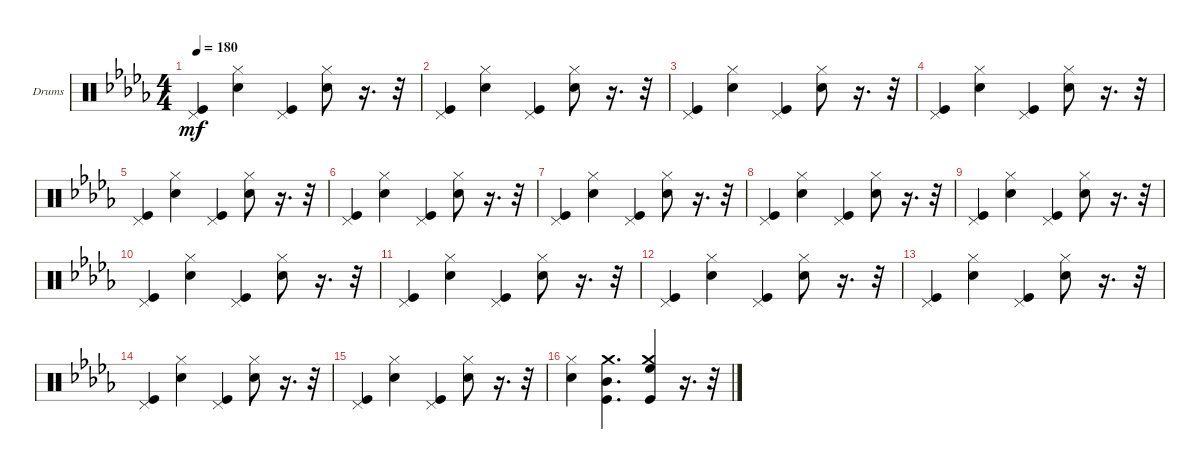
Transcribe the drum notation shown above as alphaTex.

\bracketExtendMode groupsimilarinstruments
\firstSystemTrackNameOrientation horizontal
\otherSystemsTrackNameOrientation horizontal
\track ("Drums" "Drums") {instrument percussion}
\staff {score}
\articulation defaults
\ts (4 4)
\tempo 180
\clef neutral
\ks bbminor
("Kick (hit)" "Pedal Hi-Hat (hit)").4{dy mf} ("Snare (hit) 2" "Hi-Hat (closed)").4 ("Kick (hit)" "Pedal Hi-Hat (hit)").4 ("Snare (hit) 2" "Hi-Hat (closed)").8 r.16{d} r.32 |
("Kick (hit)" "Pedal Hi-Hat (hit)").4 ("Snare (hit) 2" "Hi-Hat (closed)").4 ("Kick (hit)" "Pedal Hi-Hat (hit)").4 ("Snare (hit) 2" "Hi-Hat (closed)").8 r.16{d} r.32 |
("Kick (hit)" "Pedal Hi-Hat (hit)").4 ("Snare (hit) 2" "Hi-Hat (closed)").4 ("Kick (hit)" "Pedal Hi-Hat (hit)").4 ("Snare (hit) 2" "Hi-Hat (closed)").8 r.16{d} r.32 |
("Kick (hit)" "Pedal Hi-Hat (hit)").4 ("Snare (hit) 2" "Hi-Hat (closed)").4 ("Kick (hit)" "Pedal Hi-Hat (hit)").4 ("Snare (hit) 2" "Hi-Hat (closed)").8 r.16{d} r.32 |
("Kick (hit)" "Pedal Hi-Hat (hit)").4 ("Snare (hit) 2" "Hi-Hat (closed)").4 ("Kick (hit)" "Pedal Hi-Hat (hit)").4 ("Snare (hit) 2" "Hi-Hat (closed)").8 r.16{d} r.32 |
("Kick (hit)" "Pedal Hi-Hat (hit)").4 ("Snare (hit) 2" "Hi-Hat (closed)").4 ("Kick (hit)" "Pedal Hi-Hat (hit)").4 ("Snare (hit) 2" "Hi-Hat (closed)").8 r.16{d} r.32 |
("Kick (hit)" "Pedal Hi-Hat (hit)").4 ("Snare (hit) 2" "Hi-Hat (closed)").4 ("Kick (hit)" "Pedal Hi-Hat (hit)").4 ("Snare (hit) 2" "Hi-Hat (closed)").8 r.16{d} r.32 |
("Kick (hit)" "Pedal Hi-Hat (hit)").4 ("Snare (hit) 2" "Hi-Hat (closed)").4 ("Kick (hit)" "Pedal Hi-Hat (hit)").4 ("Snare (hit) 2" "Hi-Hat (closed)").8 r.16{d} r.32 |
("Kick (hit)" "Pedal Hi-Hat (hit)").4 ("Snare (hit) 2" "Hi-Hat (closed)").4 ("Kick (hit)" "Pedal Hi-Hat (hit)").4 ("Snare (hit) 2" "Hi-Hat (closed)").8 r.16{d} r.32 |
("Kick (hit)" "Pedal Hi-Hat (hit)").4 ("Snare (hit) 2" "Hi-Hat (closed)").4 ("Kick (hit)" "Pedal Hi-Hat (hit)").4 ("Snare (hit) 2" "Hi-Hat (closed)").8 r.16{d} r.32 |
("Kick (hit)" "Pedal Hi-Hat (hit)").4 ("Snare (hit) 2" "Hi-Hat (closed)").4 ("Kick (hit)" "Pedal Hi-Hat (hit)").4 ("Snare (hit) 2" "Hi-Hat (closed)").8 r.16{d} r.32 |
("Kick (hit)" "Pedal Hi-Hat (hit)").4 ("Snare (hit) 2" "Hi-Hat (closed)").4 ("Kick (hit)" "Pedal Hi-Hat (hit)").4 ("Snare (hit) 2" "Hi-Hat (closed)").8 r.16{d} r.32 |
("Kick (hit)" "Pedal Hi-Hat (hit)").4 ("Snare (hit) 2" "Hi-Hat (closed)").4 ("Kick (hit)" "Pedal Hi-Hat (hit)").4 ("Snare (hit) 2" "Hi-Hat (closed)").8 r.16{d} r.32 |
("Kick (hit)" "Pedal Hi-Hat (hit)").4 ("Snare (hit) 2" "Hi-Hat (closed)").4 ("Kick (hit)" "Pedal Hi-Hat (hit)").4 ("Snare (hit) 2" "Hi-Hat (closed)").8 r.16{d} r.32 |
("Kick (hit)" "Pedal Hi-Hat (hit)").4 ("Snare (hit) 2" "Hi-Hat (closed)").4 ("Kick (hit)" "Pedal Hi-Hat (hit)").4 ("Snare (hit) 2" "Hi-Hat (closed)").8 r.16{d} r.32 |
("Snare (hit) 2" "Hi-Hat (closed)").4 ("Mid Tom (hit)" "Kick (hit)" "Crash medium (hit)").4{d} ("Kick (hit)" "High Floor Tom (hit)" "Crash medium (hit)").4 r.16{d} r.32
